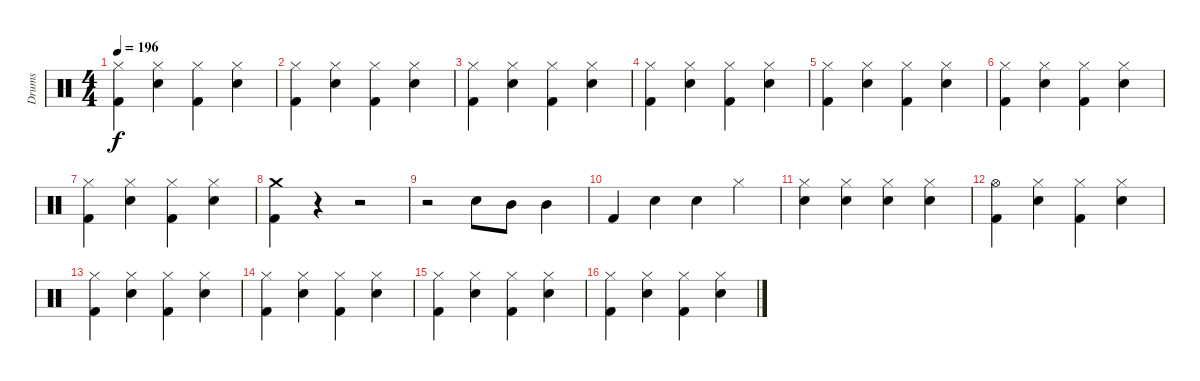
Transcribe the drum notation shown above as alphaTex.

\track ("Drums" "Drums") {instrument percussion}
\staff {score}
\articulation defaults
\ts (4 4)
\tempo 196
\clef neutral
\ks c
("Hi-Hat (closed)" "Kick (hit) 2").4{dy f} ("Hi-Hat (closed)" "Snare (hit) 2").4 ("Hi-Hat (closed)" "Kick (hit) 2").4 ("Hi-Hat (closed)" "Snare (hit) 2").4 |
("Hi-Hat (closed)" "Kick (hit) 2").4 ("Hi-Hat (closed)" "Snare (hit) 2").4 ("Hi-Hat (closed)" "Kick (hit) 2").4 ("Hi-Hat (closed)" "Snare (hit) 2").4 |
("Hi-Hat (closed)" "Kick (hit) 2").4 ("Hi-Hat (closed)" "Snare (hit) 2").4 ("Hi-Hat (closed)" "Kick (hit) 2").4 ("Hi-Hat (closed)" "Snare (hit) 2").4 |
("Hi-Hat (closed)" "Kick (hit) 2").4 ("Hi-Hat (closed)" "Snare (hit) 2").4 ("Hi-Hat (closed)" "Kick (hit) 2").4 ("Hi-Hat (closed)" "Snare (hit) 2").4 |
("Hi-Hat (closed)" "Kick (hit) 2").4 ("Hi-Hat (closed)" "Snare (hit) 2").4 ("Hi-Hat (closed)" "Kick (hit) 2").4 ("Hi-Hat (closed)" "Snare (hit) 2").4 |
("Hi-Hat (closed)" "Kick (hit) 2").4 ("Hi-Hat (closed)" "Snare (hit) 2").4 ("Hi-Hat (closed)" "Kick (hit) 2").4 ("Hi-Hat (closed)" "Snare (hit) 2").4 |
("Hi-Hat (closed)" "Kick (hit) 2").4 ("Hi-Hat (closed)" "Snare (hit) 2").4 ("Hi-Hat (closed)" "Kick (hit) 2").4 ("Hi-Hat (closed)" "Snare (hit) 2").4 |
("Crash medium (hit)" "Kick (hit) 2").4 r.4 r.2 |
r.2 "Snare (hit) 2".8 "Mid Tom (hit)".8 "Mid Tom (hit)".4 |
"Kick (hit) 2".4 "Snare (hit) 2".4 "Snare (hit) 2".4 "Hi-Hat (closed)".4 |
("Hi-Hat (closed)" "Snare (hit) 2").4 ("Hi-Hat (closed)" "Snare (hit) 2").4 ("Hi-Hat (closed)" "Snare (hit) 2").4 ("Hi-Hat (closed)" "Snare (hit) 2").4 |
("Hi-Hat (open)" "Kick (hit) 2").4 ("Hi-Hat (closed)" "Snare (hit) 2").4 ("Hi-Hat (closed)" "Kick (hit) 2").4 ("Hi-Hat (closed)" "Snare (hit) 2").4 |
("Hi-Hat (closed)" "Kick (hit) 2").4 ("Hi-Hat (closed)" "Snare (hit) 2").4 ("Hi-Hat (closed)" "Kick (hit) 2").4 ("Hi-Hat (closed)" "Snare (hit) 2").4 |
("Hi-Hat (closed)" "Kick (hit) 2").4 ("Hi-Hat (closed)" "Snare (hit) 2").4 ("Hi-Hat (closed)" "Kick (hit) 2").4 ("Hi-Hat (closed)" "Snare (hit) 2").4 |
("Hi-Hat (closed)" "Kick (hit) 2").4 ("Hi-Hat (closed)" "Snare (hit) 2").4 ("Hi-Hat (closed)" "Kick (hit) 2").4 ("Hi-Hat (closed)" "Snare (hit) 2").4 |
("Hi-Hat (closed)" "Kick (hit) 2").4 ("Hi-Hat (closed)" "Snare (hit) 2").4 ("Hi-Hat (closed)" "Kick (hit) 2").4 ("Hi-Hat (closed)" "Snare (hit) 2").4
